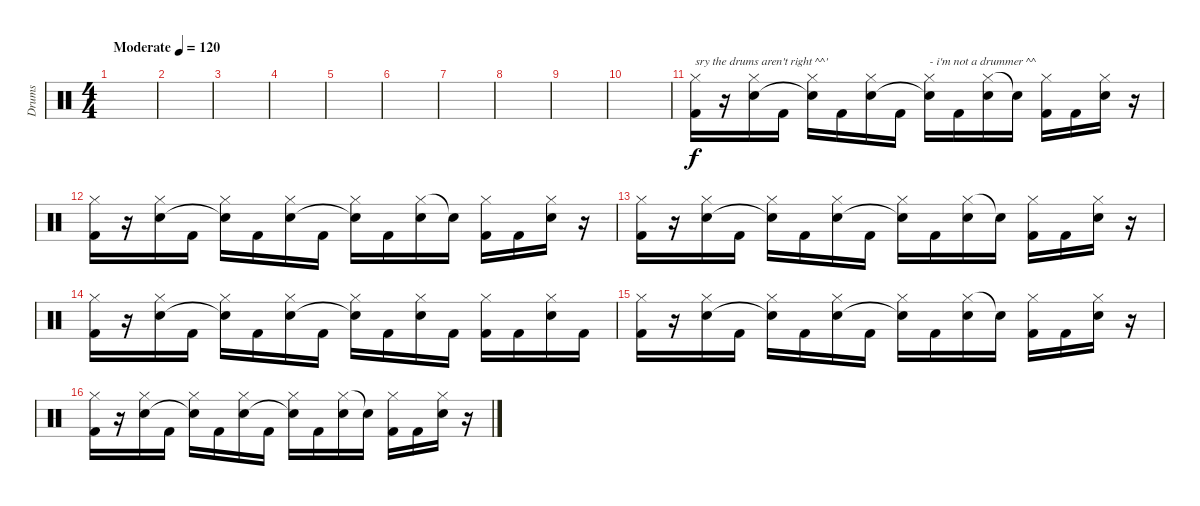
\track ("Drums" "Drums") {instrument percussion}
\staff {score}
\articulation defaults
\ts (4 4)
\tempo (120 "Moderate")
\tempo 105
\tempo (120 "Moderate")
\clef neutral
\ks c
|
|
|
|
|
|
|
|
|
|
("Hi-Hat (closed)" "Kick (hit) 2").16{txt "sry the drums aren't right ^^'"} r.16 ("Hi-Hat (closed)" "Electric Snare (hit)").16 "Kick (hit) 2".16 ("Hi-Hat (closed)" "Snare (hit)"{t}).16 "Kick (hit) 2".16 ("Hi-Hat (closed)" "Electric Snare (hit)").16 "Kick (hit) 2".16 ("Hi-Hat (closed)" "Snare (hit)"{t}).16{txt "- i'm not a drummer ^^"} "Kick (hit) 2".16 ("Hi-Hat (closed)" "Electric Snare (hit)").16 "Snare (hit)"{t}.16 ("Hi-Hat (closed)" "Kick (hit) 2").16 "Kick (hit) 2".16 ("Hi-Hat (closed)" "Electric Snare (hit)").16 r.16 |
("Hi-Hat (closed)" "Kick (hit) 2").16 r.16 ("Hi-Hat (closed)" "Electric Snare (hit)").16 "Kick (hit) 2".16 ("Hi-Hat (closed)" "Snare (hit)"{t}).16 "Kick (hit) 2".16 ("Hi-Hat (closed)" "Electric Snare (hit)").16 "Kick (hit) 2".16 ("Hi-Hat (closed)" "Snare (hit)"{t}).16 "Kick (hit) 2".16 ("Hi-Hat (closed)" "Electric Snare (hit)").16 "Snare (hit)"{t}.16 ("Hi-Hat (closed)" "Kick (hit) 2").16 "Kick (hit) 2".16 ("Hi-Hat (closed)" "Electric Snare (hit)").16 r.16 |
("Hi-Hat (closed)" "Kick (hit) 2").16 r.16 ("Hi-Hat (closed)" "Electric Snare (hit)").16 "Kick (hit) 2".16 ("Hi-Hat (closed)" "Snare (hit)"{t}).16 "Kick (hit) 2".16 ("Hi-Hat (closed)" "Electric Snare (hit)").16 "Kick (hit) 2".16 ("Hi-Hat (closed)" "Snare (hit)"{t}).16 "Kick (hit) 2".16 ("Hi-Hat (closed)" "Electric Snare (hit)").16 "Snare (hit)"{t}.16 ("Hi-Hat (closed)" "Kick (hit) 2").16 "Kick (hit) 2".16 ("Hi-Hat (closed)" "Electric Snare (hit)").16 r.16 |
("Hi-Hat (closed)" "Kick (hit) 2").16 r.16 ("Hi-Hat (closed)" "Electric Snare (hit)").16 "Kick (hit) 2".16 ("Hi-Hat (closed)" "Snare (hit)"{t}).16 "Kick (hit) 2".16 ("Hi-Hat (closed)" "Electric Snare (hit)").16 "Kick (hit) 2".16 ("Hi-Hat (closed)" "Snare (hit)"{t}).16 "Kick (hit) 2".16 ("Hi-Hat (closed)" "Electric Snare (hit)").16 "Kick (hit) 2".16 ("Hi-Hat (closed)" "Kick (hit) 2").16 "Kick (hit) 2".16 ("Hi-Hat (closed)" "Electric Snare (hit)").16 "Kick (hit) 2".16 |
("Hi-Hat (closed)" "Kick (hit) 2").16 r.16 ("Hi-Hat (closed)" "Electric Snare (hit)").16 "Kick (hit) 2".16 ("Hi-Hat (closed)" "Snare (hit)"{t}).16 "Kick (hit) 2".16 ("Hi-Hat (closed)" "Electric Snare (hit)").16 "Kick (hit) 2".16 ("Hi-Hat (closed)" "Snare (hit)"{t}).16 "Kick (hit) 2".16 ("Hi-Hat (closed)" "Electric Snare (hit)").16 "Snare (hit)"{t}.16 ("Hi-Hat (closed)" "Kick (hit) 2").16 "Kick (hit) 2".16 ("Hi-Hat (closed)" "Electric Snare (hit)").16 r.16 |
("Hi-Hat (closed)" "Kick (hit) 2").16 r.16 ("Hi-Hat (closed)" "Electric Snare (hit)").16 "Kick (hit) 2".16 ("Hi-Hat (closed)" "Snare (hit)"{t}).16 "Kick (hit) 2".16 ("Hi-Hat (closed)" "Electric Snare (hit)").16 "Kick (hit) 2".16 ("Hi-Hat (closed)" "Snare (hit)"{t}).16 "Kick (hit) 2".16 ("Hi-Hat (closed)" "Electric Snare (hit)").16 "Snare (hit)"{t}.16 ("Hi-Hat (closed)" "Kick (hit) 2").16 "Kick (hit) 2".16 ("Hi-Hat (closed)" "Electric Snare (hit)").16 r.16
